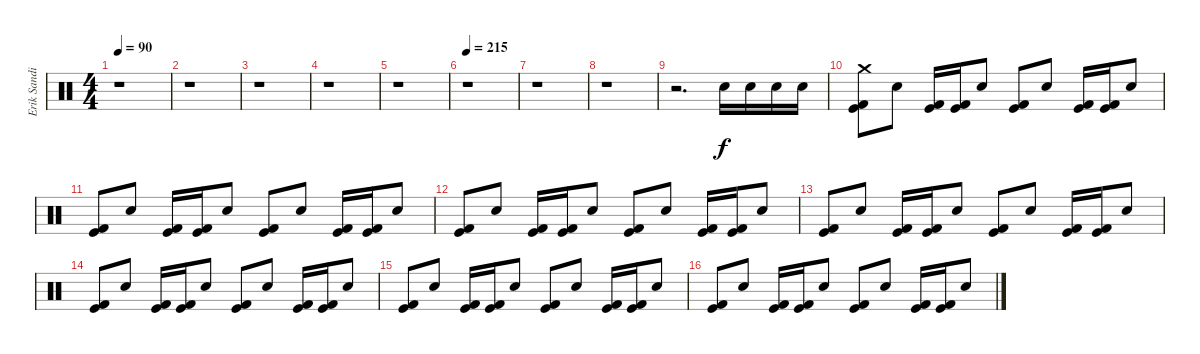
\track ("Erik Sandin" "Erik Sandi") {instrument percussion}
\staff {score}
\articulation defaults
\ts (4 4)
\tempo 90
\clef neutral
\ks c
r.1{dy f} |
r.1 |
r.1 |
r.1 |
r.1 |
\tempo 215
r.1 |
r.1 |
r.1 |
r.2{d} "Electric Snare (hit)".16 "Electric Snare (hit)".16 "Electric Snare (hit)".16 "Electric Snare (hit)".16 |
("Crash medium (hit)" "Kick (hit) 2" "Kick (hit)").8 "Electric Snare (hit)".8 ("Kick (hit) 2" "Kick (hit)").16 ("Kick (hit) 2" "Kick (hit)").16 "Electric Snare (hit)".8 ("Kick (hit) 2" "Kick (hit)").8 "Electric Snare (hit)".8 ("Kick (hit) 2" "Kick (hit)").16 ("Kick (hit) 2" "Kick (hit)").16 "Electric Snare (hit)".8 |
("Kick (hit) 2" "Kick (hit)").8 "Electric Snare (hit)".8 ("Kick (hit) 2" "Kick (hit)").16 ("Kick (hit) 2" "Kick (hit)").16 "Electric Snare (hit)".8 ("Kick (hit) 2" "Kick (hit)").8 "Electric Snare (hit)".8 ("Kick (hit) 2" "Kick (hit)").16 ("Kick (hit) 2" "Kick (hit)").16 "Electric Snare (hit)".8 |
("Kick (hit) 2" "Kick (hit)").8 "Electric Snare (hit)".8 ("Kick (hit) 2" "Kick (hit)").16 ("Kick (hit) 2" "Kick (hit)").16 "Electric Snare (hit)".8 ("Kick (hit) 2" "Kick (hit)").8 "Electric Snare (hit)".8 ("Kick (hit) 2" "Kick (hit)").16 ("Kick (hit) 2" "Kick (hit)").16 "Electric Snare (hit)".8 |
("Kick (hit) 2" "Kick (hit)").8 "Electric Snare (hit)".8 ("Kick (hit) 2" "Kick (hit)").16 ("Kick (hit) 2" "Kick (hit)").16 "Electric Snare (hit)".8 ("Kick (hit) 2" "Kick (hit)").8 "Electric Snare (hit)".8 ("Kick (hit) 2" "Kick (hit)").16 ("Kick (hit) 2" "Kick (hit)").16 "Electric Snare (hit)".8 |
("Kick (hit) 2" "Kick (hit)").8 "Electric Snare (hit)".8 ("Kick (hit) 2" "Kick (hit)").16 ("Kick (hit) 2" "Kick (hit)").16 "Electric Snare (hit)".8 ("Kick (hit) 2" "Kick (hit)").8 "Electric Snare (hit)".8 ("Kick (hit) 2" "Kick (hit)").16 ("Kick (hit) 2" "Kick (hit)").16 "Electric Snare (hit)".8 |
("Kick (hit) 2" "Kick (hit)").8 "Electric Snare (hit)".8 ("Kick (hit) 2" "Kick (hit)").16 ("Kick (hit) 2" "Kick (hit)").16 "Electric Snare (hit)".8 ("Kick (hit) 2" "Kick (hit)").8 "Electric Snare (hit)".8 ("Kick (hit) 2" "Kick (hit)").16 ("Kick (hit) 2" "Kick (hit)").16 "Electric Snare (hit)".8 |
("Kick (hit) 2" "Kick (hit)").8 "Electric Snare (hit)".8 ("Kick (hit) 2" "Kick (hit)").16 ("Kick (hit) 2" "Kick (hit)").16 "Electric Snare (hit)".8 ("Kick (hit) 2" "Kick (hit)").8 "Electric Snare (hit)".8 ("Kick (hit) 2" "Kick (hit)").16 ("Kick (hit) 2" "Kick (hit)").16 "Electric Snare (hit)".8
